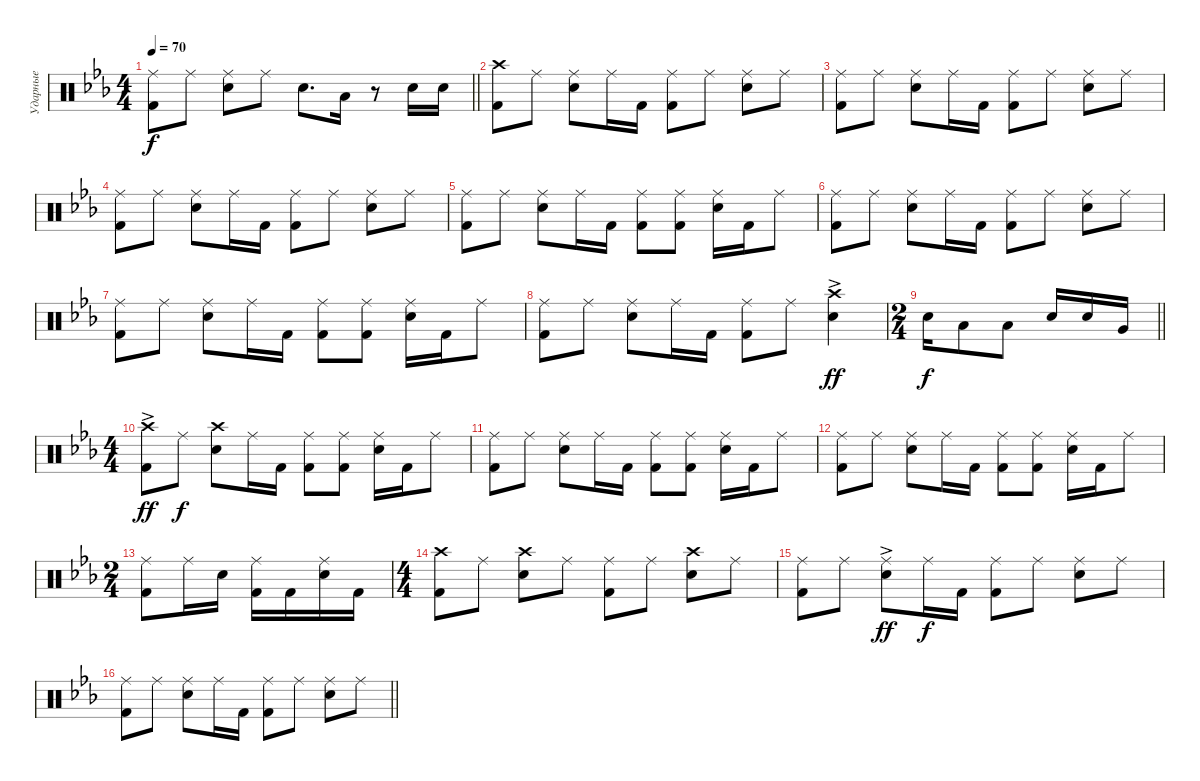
\track ("Ударные" "Ударные") {instrument percussion}
\staff {score}
\articulation defaults
\ts (4 4)
\tempo 70
\clef neutral
\barLineRight lightlight
\ks eb
("Kick (hit) 2" "Ride (middle)").8{dy f} "Ride (middle)".8 ("Snare (hit) 2" "Ride (middle)").8 "Ride (middle)".8 "Snare (hit) 2".8{d} "Low Tom (hit)".16 r.8 "Snare (hit) 2".16 "Snare (hit) 2".16 |
("Kick (hit) 2" "Crash high (hit)").8 "Ride (middle)".8 ("Snare (hit) 2" "Ride (middle)").8 "Ride (middle)".16 "Kick (hit) 2".16 ("Kick (hit) 2" "Ride (middle)").8 "Ride (middle)".8 ("Snare (hit) 2" "Ride (middle)").8 "Ride (middle)".8 |
("Kick (hit) 2" "Ride (middle)").8 "Ride (middle)".8 ("Snare (hit) 2" "Ride (middle)").8 "Ride (middle)".16 "Kick (hit) 2".16 ("Kick (hit) 2" "Ride (middle)").8 "Ride (middle)".8 ("Snare (hit) 2" "Ride (middle)").8 "Ride (middle)".8 |
("Kick (hit) 2" "Ride (middle)").8 "Ride (middle)".8 ("Snare (hit) 2" "Ride (middle)").8 "Ride (middle)".16 "Kick (hit) 2".16 ("Kick (hit) 2" "Ride (middle)").8 "Ride (middle)".8 ("Snare (hit) 2" "Ride (middle)").8 "Ride (middle)".8 |
("Kick (hit) 2" "Ride (middle)").8 "Ride (middle)".8 ("Snare (hit) 2" "Ride (middle)").8 "Ride (middle)".16 "Kick (hit) 2".16 ("Kick (hit) 2" "Ride (middle)").8 ("Kick (hit) 2" "Ride (middle)").8 ("Snare (hit) 2" "Ride (middle)").16 "Kick (hit) 2".16 "Ride (middle)".8 |
("Kick (hit) 2" "Ride (middle)").8 "Ride (middle)".8 ("Snare (hit) 2" "Ride (middle)").8 "Ride (middle)".16 "Kick (hit) 2".16 ("Kick (hit) 2" "Ride (middle)").8 "Ride (middle)".8 ("Snare (hit) 2" "Ride (middle)").8 "Ride (middle)".8 |
("Kick (hit) 2" "Ride (middle)").8 "Ride (middle)".8 ("Snare (hit) 2" "Ride (middle)").8 "Ride (middle)".16 "Kick (hit) 2".16 ("Kick (hit) 2" "Ride (middle)").8 ("Kick (hit) 2" "Ride (middle)").8 ("Snare (hit) 2" "Ride (middle)").16 "Kick (hit) 2".16 "Ride (middle)".8 |
("Kick (hit) 2" "Ride (middle)").8 "Ride (middle)".8 ("Snare (hit) 2" "Ride (middle)").8 "Ride (middle)".16 "Kick (hit) 2".16 ("Kick (hit) 2" "Ride (middle)").8 "Ride (middle)".8 ("Snare (hit) 2" "Crash high (hit)"{ac}).4{dy ff} |
\ts (2 4)
\barLineRight lightlight "Snare (hit) 2".16{dy f} "Low Tom (hit)".8 "Low Tom (hit)".8 "Snare (hit) 2".16 "Snare (hit) 2".16 "Very Low Tom (hit)".16
|
\ts (4 4)
("Kick (hit) 2" "Crash high (hit)"{ac}).8{dy ff} "Ride (middle)".8{dy f} ("Snare (hit) 2" "Crash high (hit)").8 "Ride (middle)".16 "Kick (hit) 2".16 ("Kick (hit) 2" "Ride (middle)").8 ("Kick (hit) 2" "Ride (middle)").8 ("Snare (hit) 2" "Ride (middle)").16 "Kick (hit) 2".16 "Ride (middle)".8 |
("Kick (hit) 2" "Ride (middle)").8 "Ride (middle)".8 ("Snare (hit) 2" "Ride (middle)").8 "Ride (middle)".16 "Kick (hit) 2".16 ("Kick (hit) 2" "Ride (middle)").8 ("Kick (hit) 2" "Ride (middle)").8 ("Snare (hit) 2" "Ride (middle)").16 "Kick (hit) 2".16 "Ride (middle)".8 |
("Kick (hit) 2" "Ride (middle)").8 "Ride (middle)".8 ("Snare (hit) 2" "Ride (middle)").8 "Ride (middle)".16 "Kick (hit) 2".16 ("Kick (hit) 2" "Ride (middle)").8 ("Kick (hit) 2" "Ride (middle)").8 ("Snare (hit) 2" "Ride (middle)").16 "Kick (hit) 2".16 "Ride (middle)".8 |
\ts (2 4)
("Kick (hit) 2" "Ride (middle)").8 "Ride (middle)".16 "Snare (hit) 2".16 ("Kick (hit) 2" "Ride (middle)").16 "Kick (hit) 2".16 ("Snare (hit) 2" "Ride (middle)").16 "Kick (hit) 2".16 |
\ts (4 4)
("Kick (hit) 2" "Crash high (hit)").8 "Ride (middle)".8 ("Snare (hit) 2" "Crash high (hit)").8 "Ride (middle)".8 ("Kick (hit) 2" "Ride (middle)").8 "Ride (middle)".8 ("Snare (hit) 2" "Crash high (hit)").8 "Ride (middle)".8 |
("Kick (hit) 2" "Ride (middle)").8 "Ride (middle)".8 ("Snare (hit) 2" "Ride (middle)"{ac}).8{dy ff} "Ride (middle)".16{dy f} "Kick (hit) 2".16 ("Kick (hit) 2" "Ride (middle)").8 "Ride (middle)".8 ("Snare (hit) 2" "Ride (middle)").8 "Ride (middle)".8 |
\barLineRight lightlight
("Kick (hit) 2" "Ride (middle)").8 "Ride (middle)".8 ("Snare (hit) 2" "Ride (middle)").8 "Ride (middle)".16 "Kick (hit) 2".16 ("Kick (hit) 2" "Ride (middle)").8 "Ride (middle)".8 ("Snare (hit) 2" "Ride (middle)").8 "Ride (middle)".8
